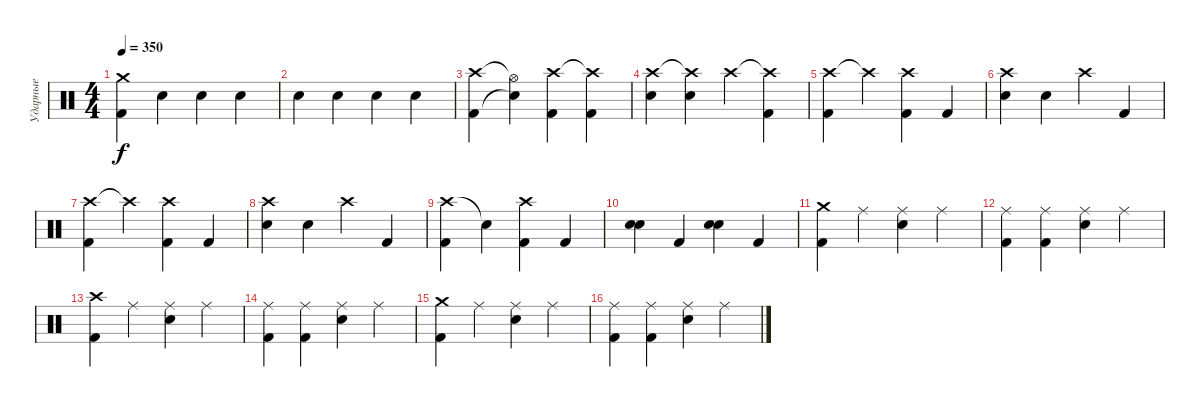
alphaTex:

\track ("Ударные" "Ударные") {instrument percussion}
\staff {score}
\articulation defaults
\ts (4 4)
\tempo 350
\clef neutral
\ks c
("Crash medium (hit)" "Kick (hit) 2").4{dy f} "Electric Snare (hit)".4 "Electric Snare (hit)".4 "Electric Snare (hit)".4 |
"Electric Snare (hit)".4 "Electric Snare (hit)".4 "Electric Snare (hit)".4 "Electric Snare (hit)".4 |
("Crash high (hit)" "Kick (hit) 2").4 ("Hi-Hat (open)"{t} "Snare (hit)"{t}).4 ("Crash high (hit)" "Kick (hit) 2").4 ("Crash high (hit)"{t} "Kick (hit) 2").4 |
("Crash high (hit)" "Electric Snare (hit)").4 ("Crash high (hit)"{t} "Electric Snare (hit)").4 "Crash high (hit)".4 ("Crash high (hit)"{t} "Kick (hit) 2").4 |
("Crash high (hit)" "Kick (hit) 2").4 "Crash high (hit)"{t}.4 ("Crash high (hit)" "Kick (hit) 2").4 "Kick (hit) 2".4 |
("Crash high (hit)" "Electric Snare (hit)").4 "Electric Snare (hit)".4 "Crash high (hit)".4 "Kick (hit) 2".4 |
("Crash high (hit)" "Kick (hit) 2").4 "Crash high (hit)"{t}.4 ("Crash high (hit)" "Kick (hit) 2").4 "Kick (hit) 2".4 |
("Crash high (hit)" "Electric Snare (hit)").4 "Electric Snare (hit)".4 "Crash high (hit)".4 "Kick (hit) 2".4 |
("Crash high (hit)" "Kick (hit) 2").4 "Snare (hit)"{t}.4 ("Crash high (hit)" "Kick (hit) 2").4 "Kick (hit) 2".4 |
("Electric Snare (hit)" "Electric Snare (hit)").4 "Kick (hit) 2".4 ("Electric Snare (hit)" "Electric Snare (hit)").4 "Kick (hit) 2".4 |
("Crash medium (hit)" "Kick (hit) 2").4 "Ride (middle)".4 ("Ride (middle)" "Electric Snare (hit)").4 "Ride (middle)".4 |
("Ride (middle)" "Kick (hit) 2").4 ("Ride (middle)" "Kick (hit) 2").4 ("Ride (middle)" "Electric Snare (hit)").4 "Ride (middle)".4 |
("Crash high (hit)" "Kick (hit) 2").4 "Ride (middle)".4 ("Ride (middle)" "Electric Snare (hit)").4 "Ride (middle)".4 |
("Ride (middle)" "Kick (hit) 2").4 ("Ride (middle)" "Kick (hit) 2").4 ("Ride (middle)" "Electric Snare (hit)").4 "Ride (middle)".4 |
("Crash medium (hit)" "Kick (hit) 2").4 "Ride (middle)".4 ("Ride (middle)" "Electric Snare (hit)").4 "Ride (middle)".4 |
("Ride (middle)" "Kick (hit) 2").4 ("Ride (middle)" "Kick (hit) 2").4 ("Ride (middle)" "Electric Snare (hit)").4 "Ride (middle)".4
